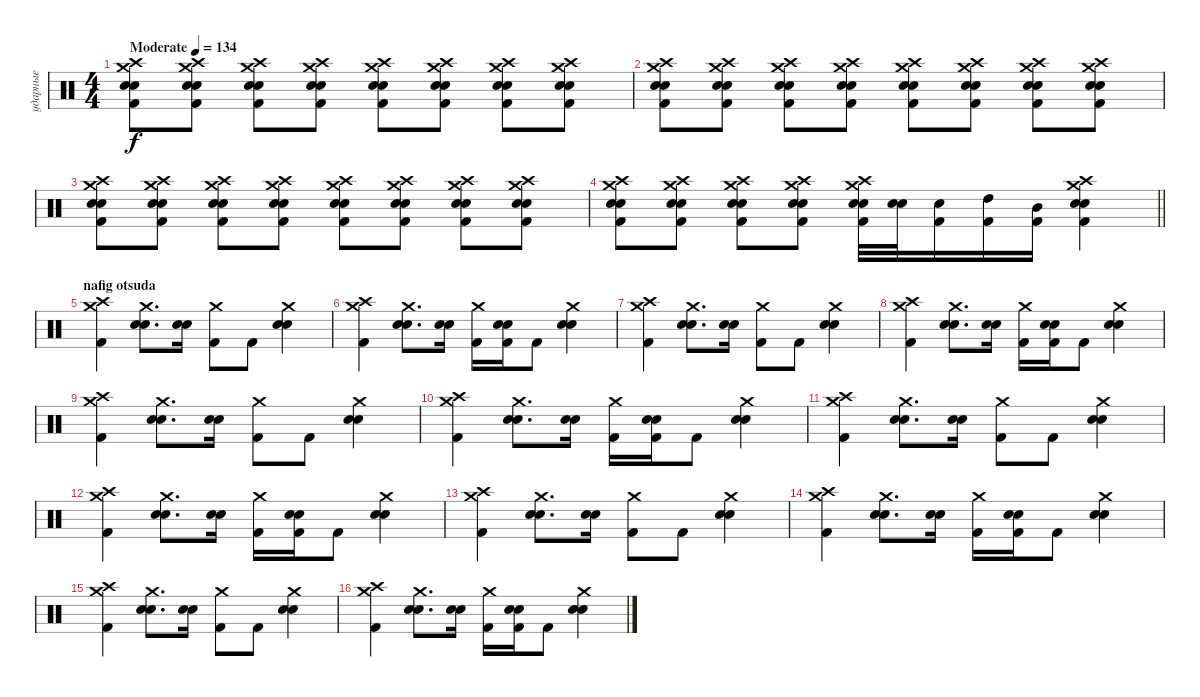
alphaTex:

\track ("ударные" "ударные") {instrument percussion}
\staff {score}
\articulation defaults
\ts (4 4)
\tempo (134 "Moderate")
\clef neutral
\ks c
("Crash high (hit)" "Crash medium (hit)" "Snare (hit) 2" "Electric Snare (hit)" "Kick (hit) 2").8{dy f} ("Crash high (hit)" "Crash medium (hit)" "Snare (hit) 2" "Electric Snare (hit)" "Kick (hit) 2").8 ("Crash high (hit)" "Crash medium (hit)" "Snare (hit) 2" "Electric Snare (hit)" "Kick (hit) 2").8 ("Crash high (hit)" "Crash medium (hit)" "Snare (hit) 2" "Electric Snare (hit)" "Kick (hit) 2").8 ("Crash high (hit)" "Crash medium (hit)" "Snare (hit) 2" "Electric Snare (hit)" "Kick (hit) 2").8 ("Crash high (hit)" "Crash medium (hit)" "Snare (hit) 2" "Electric Snare (hit)" "Kick (hit) 2").8 ("Crash high (hit)" "Crash medium (hit)" "Snare (hit) 2" "Electric Snare (hit)" "Kick (hit) 2").8 ("Crash high (hit)" "Crash medium (hit)" "Snare (hit) 2" "Electric Snare (hit)" "Kick (hit) 2").8 |
("Crash high (hit)" "Crash medium (hit)" "Snare (hit) 2" "Electric Snare (hit)" "Kick (hit) 2").8 ("Crash high (hit)" "Crash medium (hit)" "Snare (hit) 2" "Electric Snare (hit)" "Kick (hit) 2").8 ("Crash high (hit)" "Crash medium (hit)" "Snare (hit) 2" "Electric Snare (hit)" "Kick (hit) 2").8 ("Crash high (hit)" "Crash medium (hit)" "Snare (hit) 2" "Electric Snare (hit)" "Kick (hit) 2").8 ("Crash high (hit)" "Crash medium (hit)" "Snare (hit) 2" "Electric Snare (hit)" "Kick (hit) 2").8 ("Crash high (hit)" "Crash medium (hit)" "Snare (hit) 2" "Electric Snare (hit)" "Kick (hit) 2").8 ("Crash high (hit)" "Crash medium (hit)" "Snare (hit) 2" "Electric Snare (hit)" "Kick (hit) 2").8 ("Crash high (hit)" "Crash medium (hit)" "Snare (hit) 2" "Electric Snare (hit)" "Kick (hit) 2").8 |
("Crash high (hit)" "Crash medium (hit)" "Snare (hit) 2" "Electric Snare (hit)" "Kick (hit) 2").8 ("Crash high (hit)" "Crash medium (hit)" "Snare (hit) 2" "Electric Snare (hit)" "Kick (hit) 2").8 ("Crash high (hit)" "Crash medium (hit)" "Snare (hit) 2" "Electric Snare (hit)" "Kick (hit) 2").8 ("Crash high (hit)" "Crash medium (hit)" "Snare (hit) 2" "Electric Snare (hit)" "Kick (hit) 2").8 ("Crash high (hit)" "Crash medium (hit)" "Snare (hit) 2" "Electric Snare (hit)" "Kick (hit) 2").8 ("Crash high (hit)" "Crash medium (hit)" "Snare (hit) 2" "Electric Snare (hit)" "Kick (hit) 2").8 ("Crash high (hit)" "Crash medium (hit)" "Snare (hit) 2" "Electric Snare (hit)" "Kick (hit) 2").8 ("Crash high (hit)" "Crash medium (hit)" "Snare (hit) 2" "Electric Snare (hit)" "Kick (hit) 2").8 |
\barLineRight lightlight
("Crash high (hit)" "Crash medium (hit)" "Snare (hit) 2" "Electric Snare (hit)" "Kick (hit) 2").8 ("Crash high (hit)" "Crash medium (hit)" "Snare (hit) 2" "Electric Snare (hit)" "Kick (hit) 2").8 ("Crash high (hit)" "Crash medium (hit)" "Snare (hit) 2" "Electric Snare (hit)" "Kick (hit) 2").8 ("Crash high (hit)" "Crash medium (hit)" "Snare (hit) 2" "Electric Snare (hit)" "Kick (hit) 2").8 ("Crash high (hit)" "Crash medium (hit)" "Snare (hit) 2" "Electric Snare (hit)" "Kick (hit) 2").32 ("Snare (hit) 2" "Electric Snare (hit)").32 ("Snare (hit) 2" "Kick (hit) 2").16 ("High Tom (hit)" "Kick (hit) 2").16 ("Mid Tom (hit)" "Kick (hit) 2").16 ("Crash high (hit)" "Crash medium (hit)" "Snare (hit) 2" "Electric Snare (hit)" "Kick (hit) 2").4 |
\section ("" "nafig otsuda")
("Crash high (hit)" "Crash medium (hit)" "Kick (hit) 2").4 ("Crash medium (hit)" "Snare (hit) 2" "Electric Snare (hit)").8{d} ("Snare (hit) 2" "Electric Snare (hit)").16 ("Crash medium (hit)" "Kick (hit) 2").8 "Kick (hit) 2".8 ("Crash medium (hit)" "Snare (hit) 2" "Electric Snare (hit)").4 |
("Crash high (hit)" "Crash medium (hit)" "Kick (hit) 2").4 ("Crash medium (hit)" "Snare (hit) 2" "Electric Snare (hit)").8{d} ("Snare (hit) 2" "Electric Snare (hit)").16 ("Crash medium (hit)" "Kick (hit) 2").16 ("Snare (hit) 2" "Electric Snare (hit)" "Kick (hit) 2").16 "Kick (hit) 2".8 ("Crash medium (hit)" "Snare (hit) 2" "Electric Snare (hit)").4 |
("Crash high (hit)" "Crash medium (hit)" "Kick (hit) 2").4 ("Crash medium (hit)" "Snare (hit) 2" "Electric Snare (hit)").8{d} ("Snare (hit) 2" "Electric Snare (hit)").16 ("Crash medium (hit)" "Kick (hit) 2").8 "Kick (hit) 2".8 ("Crash medium (hit)" "Snare (hit) 2" "Electric Snare (hit)").4 |
("Crash high (hit)" "Crash medium (hit)" "Kick (hit) 2").4 ("Crash medium (hit)" "Snare (hit) 2" "Electric Snare (hit)").8{d} ("Snare (hit) 2" "Electric Snare (hit)").16 ("Crash medium (hit)" "Kick (hit) 2").16 ("Snare (hit) 2" "Electric Snare (hit)" "Kick (hit) 2").16 "Kick (hit) 2".8 ("Crash medium (hit)" "Snare (hit) 2" "Electric Snare (hit)").4 |
("Crash high (hit)" "Crash medium (hit)" "Kick (hit) 2").4 ("Crash medium (hit)" "Snare (hit) 2" "Electric Snare (hit)").8{d} ("Snare (hit) 2" "Electric Snare (hit)").16 ("Crash medium (hit)" "Kick (hit) 2").8 "Kick (hit) 2".8 ("Crash medium (hit)" "Snare (hit) 2" "Electric Snare (hit)").4 |
("Crash high (hit)" "Crash medium (hit)" "Kick (hit) 2").4 ("Crash medium (hit)" "Snare (hit) 2" "Electric Snare (hit)").8{d} ("Snare (hit) 2" "Electric Snare (hit)").16 ("Crash medium (hit)" "Kick (hit) 2").16 ("Snare (hit) 2" "Electric Snare (hit)" "Kick (hit) 2").16 "Kick (hit) 2".8 ("Crash medium (hit)" "Snare (hit) 2" "Electric Snare (hit)").4 |
("Crash high (hit)" "Crash medium (hit)" "Kick (hit) 2").4 ("Crash medium (hit)" "Snare (hit) 2" "Electric Snare (hit)").8{d} ("Snare (hit) 2" "Electric Snare (hit)").16 ("Crash medium (hit)" "Kick (hit) 2").8 "Kick (hit) 2".8 ("Crash medium (hit)" "Snare (hit) 2" "Electric Snare (hit)").4 |
("Crash high (hit)" "Crash medium (hit)" "Kick (hit) 2").4 ("Crash medium (hit)" "Snare (hit) 2" "Electric Snare (hit)").8{d} ("Snare (hit) 2" "Electric Snare (hit)").16 ("Crash medium (hit)" "Kick (hit) 2").16 ("Snare (hit) 2" "Electric Snare (hit)" "Kick (hit) 2").16 "Kick (hit) 2".8 ("Crash medium (hit)" "Snare (hit) 2" "Electric Snare (hit)").4 |
("Crash high (hit)" "Crash medium (hit)" "Kick (hit) 2").4 ("Crash medium (hit)" "Snare (hit) 2" "Electric Snare (hit)").8{d} ("Snare (hit) 2" "Electric Snare (hit)").16 ("Crash medium (hit)" "Kick (hit) 2").8 "Kick (hit) 2".8 ("Crash medium (hit)" "Snare (hit) 2" "Electric Snare (hit)").4 |
("Crash high (hit)" "Crash medium (hit)" "Kick (hit) 2").4 ("Crash medium (hit)" "Snare (hit) 2" "Electric Snare (hit)").8{d} ("Snare (hit) 2" "Electric Snare (hit)").16 ("Crash medium (hit)" "Kick (hit) 2").16 ("Snare (hit) 2" "Electric Snare (hit)" "Kick (hit) 2").16 "Kick (hit) 2".8 ("Crash medium (hit)" "Snare (hit) 2" "Electric Snare (hit)").4 |
("Crash high (hit)" "Crash medium (hit)" "Kick (hit) 2").4 ("Crash medium (hit)" "Snare (hit) 2" "Electric Snare (hit)").8{d} ("Snare (hit) 2" "Electric Snare (hit)").16 ("Crash medium (hit)" "Kick (hit) 2").8 "Kick (hit) 2".8 ("Crash medium (hit)" "Snare (hit) 2" "Electric Snare (hit)").4 |
("Crash high (hit)" "Crash medium (hit)" "Kick (hit) 2").4 ("Crash medium (hit)" "Snare (hit) 2" "Electric Snare (hit)").8{d} ("Snare (hit) 2" "Electric Snare (hit)").16 ("Crash medium (hit)" "Kick (hit) 2").16 ("Snare (hit) 2" "Electric Snare (hit)" "Kick (hit) 2").16 "Kick (hit) 2".8 ("Crash medium (hit)" "Snare (hit) 2" "Electric Snare (hit)").4
